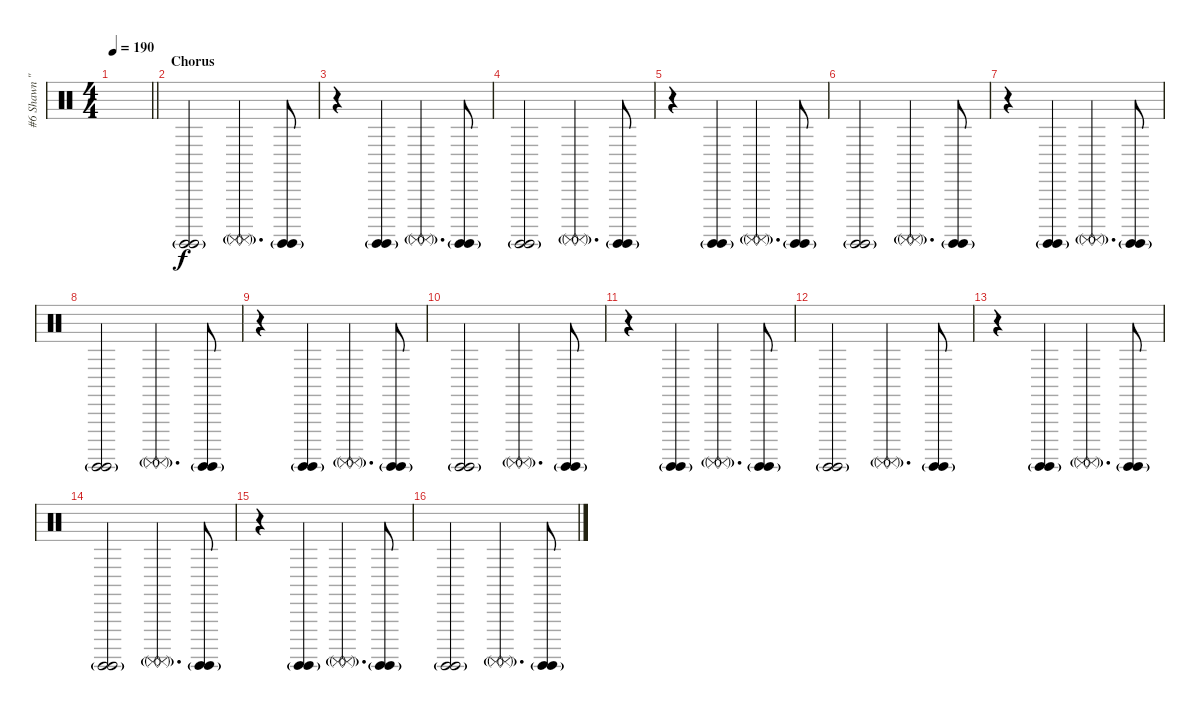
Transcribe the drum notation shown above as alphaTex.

\track ("#6 Shawn \"Clown\" Crahan" "#6 Shawn \"") {instrument percussion}
\staff {score}
\articulation defaults
\ts (4 4)
\tempo 190
\clef neutral
\barLineRight lightlight
\ks c
|
\section ("" "Chorus")
("Surdo (hit)"{g} "Surdo (hit)"{g}).2 ("Surdo (mute)"{g} "Surdo (mute)"{g}).4{d} ("Surdo (hit)"{g} "Surdo (hit)"{g}).8 |
r.4 ("Surdo (hit)"{g} "Surdo (hit)"{g}).4 ("Surdo (mute)"{g} "Surdo (mute)"{g}).4{d} ("Surdo (hit)"{g} "Surdo (hit)"{g}).8 |
("Surdo (hit)"{g} "Surdo (hit)"{g}).2 ("Surdo (mute)"{g} "Surdo (mute)"{g}).4{d} ("Surdo (hit)"{g} "Surdo (hit)"{g}).8 |
r.4 ("Surdo (hit)"{g} "Surdo (hit)"{g}).4 ("Surdo (mute)"{g} "Surdo (mute)"{g}).4{d} ("Surdo (hit)"{g} "Surdo (hit)"{g}).8 |
("Surdo (hit)"{g} "Surdo (hit)"{g}).2 ("Surdo (mute)"{g} "Surdo (mute)"{g}).4{d} ("Surdo (hit)"{g} "Surdo (hit)"{g}).8 |
r.4 ("Surdo (hit)"{g} "Surdo (hit)"{g}).4 ("Surdo (mute)"{g} "Surdo (mute)"{g}).4{d} ("Surdo (hit)"{g} "Surdo (hit)"{g}).8 |
("Surdo (hit)"{g} "Surdo (hit)"{g}).2 ("Surdo (mute)"{g} "Surdo (mute)"{g}).4{d} ("Surdo (hit)"{g} "Surdo (hit)"{g}).8 |
r.4 ("Surdo (hit)"{g} "Surdo (hit)"{g}).4 ("Surdo (mute)"{g} "Surdo (mute)"{g}).4{d} ("Surdo (hit)"{g} "Surdo (hit)"{g}).8 |
("Surdo (hit)"{g} "Surdo (hit)"{g}).2 ("Surdo (mute)"{g} "Surdo (mute)"{g}).4{d} ("Surdo (hit)"{g} "Surdo (hit)"{g}).8 |
r.4 ("Surdo (hit)"{g} "Surdo (hit)"{g}).4 ("Surdo (mute)"{g} "Surdo (mute)"{g}).4{d} ("Surdo (hit)"{g} "Surdo (hit)"{g}).8 |
("Surdo (hit)"{g} "Surdo (hit)"{g}).2 ("Surdo (mute)"{g} "Surdo (mute)"{g}).4{d} ("Surdo (hit)"{g} "Surdo (hit)"{g}).8 |
r.4 ("Surdo (hit)"{g} "Surdo (hit)"{g}).4 ("Surdo (mute)"{g} "Surdo (mute)"{g}).4{d} ("Surdo (hit)"{g} "Surdo (hit)"{g}).8 |
("Surdo (hit)"{g} "Surdo (hit)"{g}).2 ("Surdo (mute)"{g} "Surdo (mute)"{g}).4{d} ("Surdo (hit)"{g} "Surdo (hit)"{g}).8 |
r.4 ("Surdo (hit)"{g} "Surdo (hit)"{g}).4 ("Surdo (mute)"{g} "Surdo (mute)"{g}).4{d} ("Surdo (hit)"{g} "Surdo (hit)"{g}).8 |
("Surdo (hit)"{g} "Surdo (hit)"{g}).2 ("Surdo (mute)"{g} "Surdo (mute)"{g}).4{d} ("Surdo (hit)"{g} "Surdo (hit)"{g}).8
